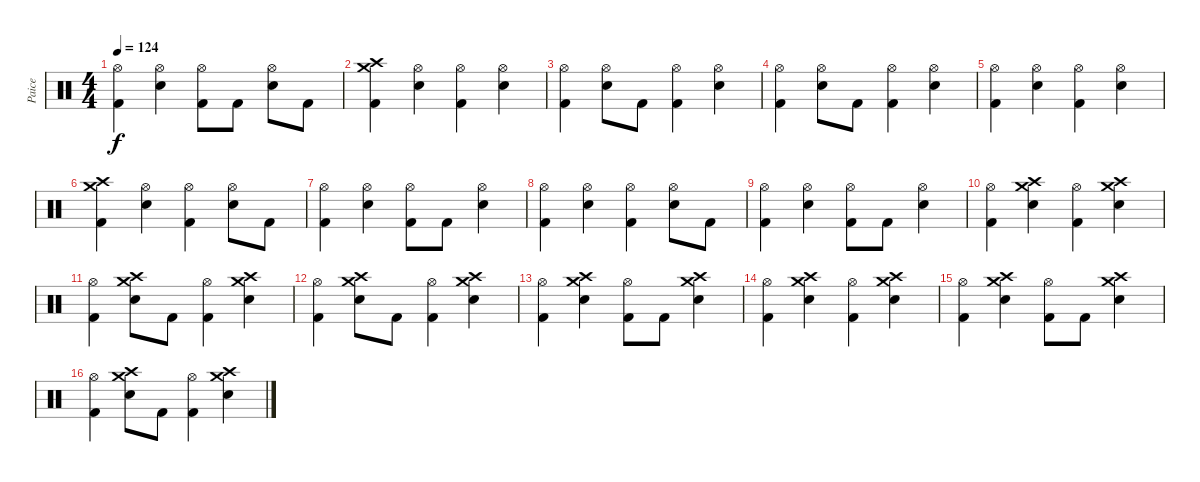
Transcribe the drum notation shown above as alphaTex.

\track ("Paice" "Paice") {instrument percussion}
\staff {score}
\articulation defaults
\ts (4 4)
\tempo 124
\clef neutral
\ks c
("Hi-Hat (open)" "Kick (hit) 2").4{dy f} ("Hi-Hat (open)" "Electric Snare (hit)").4 ("Hi-Hat (open)" "Kick (hit) 2").8 "Kick (hit) 2".8 ("Hi-Hat (open)" "Electric Snare (hit)").8 "Kick (hit) 2".8 |
("Crash high (hit)" "Crash medium (hit)" "Kick (hit) 2").4 ("Hi-Hat (open)" "Electric Snare (hit)").4 ("Hi-Hat (open)" "Kick (hit) 2").4 ("Hi-Hat (open)" "Electric Snare (hit)").4 |
("Hi-Hat (open)" "Kick (hit) 2").4 ("Hi-Hat (open)" "Electric Snare (hit)").8 "Kick (hit) 2".8 ("Hi-Hat (open)" "Kick (hit) 2").4 ("Hi-Hat (open)" "Electric Snare (hit)").4 |
("Hi-Hat (open)" "Kick (hit) 2").4 ("Hi-Hat (open)" "Electric Snare (hit)").8 "Kick (hit) 2".8 ("Hi-Hat (open)" "Kick (hit) 2").4 ("Hi-Hat (open)" "Electric Snare (hit)").4 |
("Hi-Hat (open)" "Kick (hit) 2").4 ("Hi-Hat (open)" "Electric Snare (hit)").4 ("Hi-Hat (open)" "Kick (hit) 2").4 ("Hi-Hat (open)" "Electric Snare (hit)").4 |
("Crash high (hit)" "Crash medium (hit)" "Kick (hit) 2").4 ("Hi-Hat (open)" "Electric Snare (hit)").4 ("Hi-Hat (open)" "Kick (hit) 2").4 ("Hi-Hat (open)" "Electric Snare (hit)").8 "Kick (hit) 2".8 |
("Hi-Hat (open)" "Kick (hit) 2").4 ("Hi-Hat (open)" "Electric Snare (hit)").4 ("Hi-Hat (open)" "Kick (hit) 2").8 "Kick (hit) 2".8 ("Hi-Hat (open)" "Electric Snare (hit)").4 |
("Hi-Hat (open)" "Kick (hit) 2").4 ("Hi-Hat (open)" "Electric Snare (hit)").4 ("Hi-Hat (open)" "Kick (hit) 2").4 ("Hi-Hat (open)" "Electric Snare (hit)").8 "Kick (hit) 2".8 |
("Hi-Hat (open)" "Kick (hit) 2").4 ("Hi-Hat (open)" "Electric Snare (hit)").4 ("Hi-Hat (open)" "Kick (hit) 2").8 "Kick (hit) 2".8 ("Hi-Hat (open)" "Electric Snare (hit)").4 |
("Hi-Hat (open)" "Kick (hit) 2").4 ("Crash high (hit)" "Crash medium (hit)" "Electric Snare (hit)").4 ("Hi-Hat (open)" "Kick (hit) 2").4 ("Crash high (hit)" "Crash medium (hit)" "Electric Snare (hit)").4 |
("Hi-Hat (open)" "Kick (hit) 2").4 ("Crash high (hit)" "Crash medium (hit)" "Electric Snare (hit)").8 "Kick (hit) 2".8 ("Hi-Hat (open)" "Kick (hit) 2").4 ("Crash high (hit)" "Crash medium (hit)" "Electric Snare (hit)").4 |
("Hi-Hat (open)" "Kick (hit) 2").4 ("Crash high (hit)" "Crash medium (hit)" "Electric Snare (hit)").8 "Kick (hit) 2".8 ("Hi-Hat (open)" "Kick (hit) 2").4 ("Crash high (hit)" "Crash medium (hit)" "Electric Snare (hit)").4 |
("Hi-Hat (open)" "Kick (hit) 2").4 ("Crash high (hit)" "Crash medium (hit)" "Electric Snare (hit)").4 ("Hi-Hat (open)" "Kick (hit) 2").8 "Kick (hit) 2".8 ("Crash high (hit)" "Crash medium (hit)" "Electric Snare (hit)").4 |
("Hi-Hat (open)" "Kick (hit) 2").4 ("Crash high (hit)" "Crash medium (hit)" "Electric Snare (hit)").4 ("Hi-Hat (open)" "Kick (hit) 2").4 ("Crash high (hit)" "Crash medium (hit)" "Electric Snare (hit)").4 |
("Hi-Hat (open)" "Kick (hit) 2").4 ("Crash high (hit)" "Crash medium (hit)" "Electric Snare (hit)").4 ("Hi-Hat (open)" "Kick (hit) 2").8 "Kick (hit) 2".8 ("Crash high (hit)" "Crash medium (hit)" "Electric Snare (hit)").4 |
("Hi-Hat (open)" "Kick (hit) 2").4 ("Crash high (hit)" "Crash medium (hit)" "Electric Snare (hit)").8 "Kick (hit) 2".8 ("Hi-Hat (open)" "Kick (hit) 2").4 ("Crash high (hit)" "Crash medium (hit)" "Electric Snare (hit)").4
